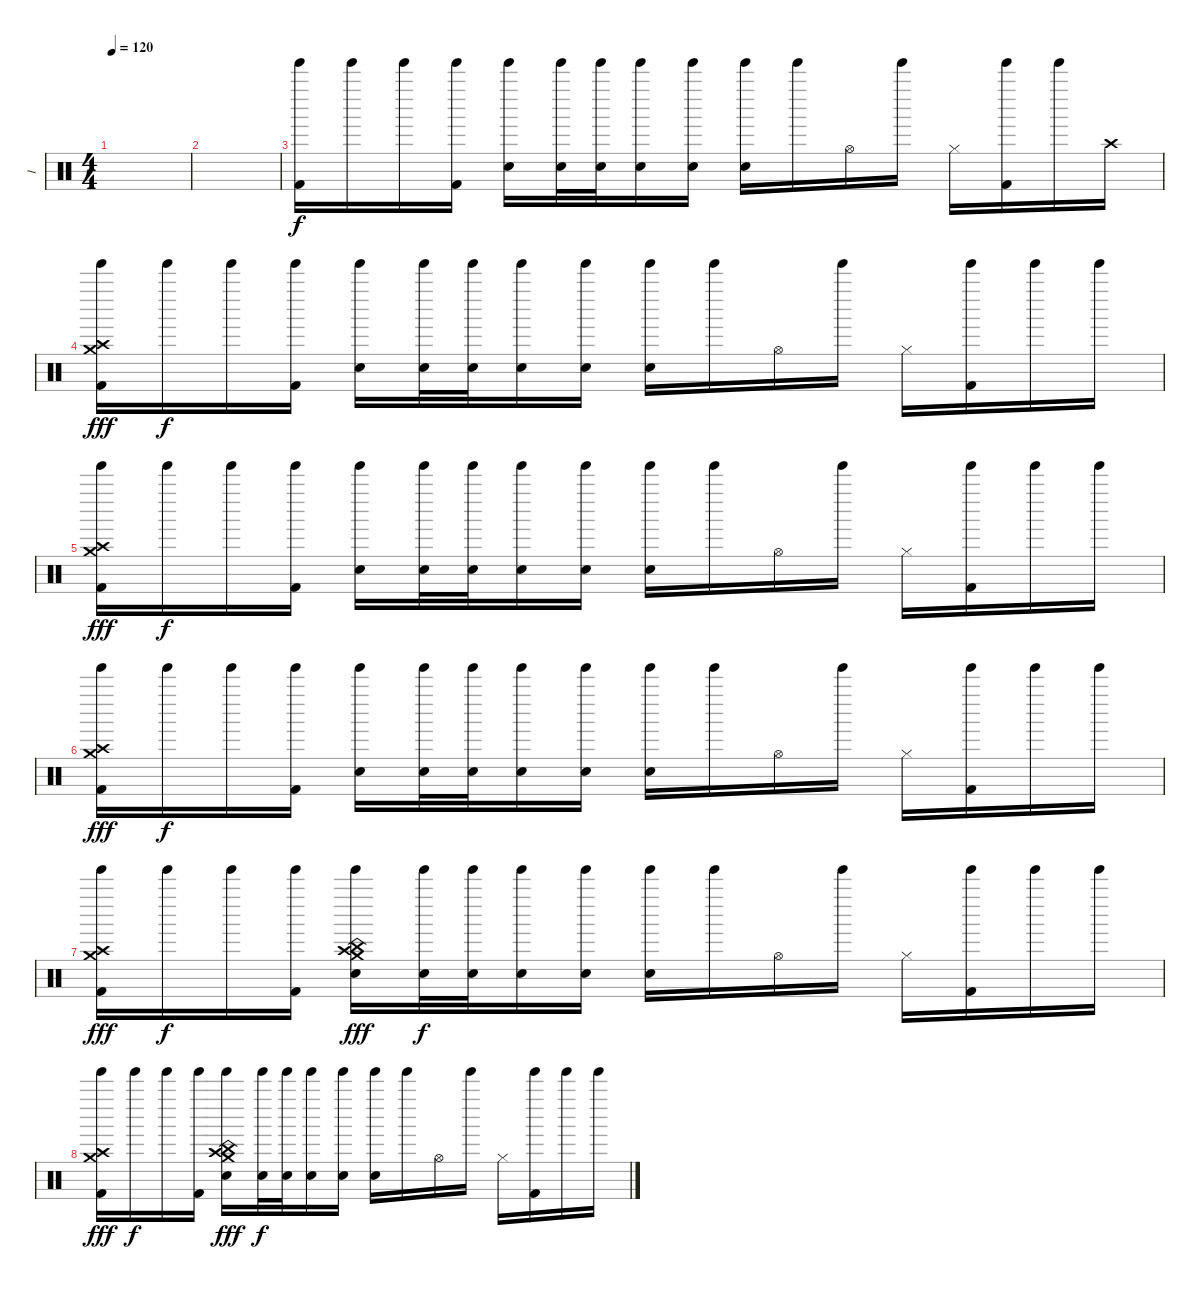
\track ("I" "I") {instrument percussion}
\staff {score}
\articulation defaults
\ts (4 4)
\tempo 120
\clef neutral
\ks c
|
|
("Tinkle Bell (hit)" "Kick (hit) 2").16{volume 7} "Tinkle Bell (hit)".16 "Tinkle Bell (hit)".16 ("Tinkle Bell (hit)" "Kick (hit) 2").16 ("Tinkle Bell (hit)" "Snare (hit) 2").16 ("Tinkle Bell (hit)" "Snare (hit) 2").32 ("Tinkle Bell (hit)" "Snare (hit) 2").32 ("Tinkle Bell (hit)" "Snare (hit) 2").16 ("Tinkle Bell (hit)" "Snare (hit) 2").16 ("Tinkle Bell (hit)" "Snare (hit) 2").16 "Tinkle Bell (hit)".16 "Hi-Hat (open)".16 "Tinkle Bell (hit)".16 "Hi-Hat (closed)".16 ("Tinkle Bell (hit)" "Kick (hit) 2").16 "Tinkle Bell (hit)".16 "Crash high (hit)".16 |
("Crash high (hit)" "Crash medium (hit)" "Tinkle Bell (hit)" "Kick (hit) 2").16{dy fff} "Tinkle Bell (hit)".16{dy f} "Tinkle Bell (hit)".16 ("Tinkle Bell (hit)" "Kick (hit) 2").16 ("Tinkle Bell (hit)" "Snare (hit) 2").16 ("Tinkle Bell (hit)" "Snare (hit) 2").32 ("Tinkle Bell (hit)" "Snare (hit) 2").32 ("Tinkle Bell (hit)" "Snare (hit) 2").16 ("Tinkle Bell (hit)" "Snare (hit) 2").16 ("Tinkle Bell (hit)" "Snare (hit) 2").16 "Tinkle Bell (hit)".16 "Hi-Hat (open)".16 "Tinkle Bell (hit)".16 "Hi-Hat (closed)".16 ("Tinkle Bell (hit)" "Kick (hit) 2").16 "Tinkle Bell (hit)".16 "Tinkle Bell (hit)".16 |
("Crash high (hit)" "Crash medium (hit)" "Tinkle Bell (hit)" "Kick (hit) 2").16{dy fff} "Tinkle Bell (hit)".16{dy f} "Tinkle Bell (hit)".16 ("Tinkle Bell (hit)" "Kick (hit) 2").16 ("Tinkle Bell (hit)" "Snare (hit) 2").16 ("Tinkle Bell (hit)" "Snare (hit) 2").32 ("Tinkle Bell (hit)" "Snare (hit) 2").32 ("Tinkle Bell (hit)" "Snare (hit) 2").16 ("Tinkle Bell (hit)" "Snare (hit) 2").16 ("Tinkle Bell (hit)" "Snare (hit) 2").16 "Tinkle Bell (hit)".16 "Hi-Hat (open)".16 "Tinkle Bell (hit)".16 "Hi-Hat (closed)".16 ("Tinkle Bell (hit)" "Kick (hit) 2").16 "Tinkle Bell (hit)".16 "Tinkle Bell (hit)".16 |
("Crash high (hit)" "Crash medium (hit)" "Tinkle Bell (hit)" "Kick (hit) 2").16{dy fff} "Tinkle Bell (hit)".16{dy f} "Tinkle Bell (hit)".16 ("Tinkle Bell (hit)" "Kick (hit) 2").16 ("Tinkle Bell (hit)" "Snare (hit) 2").16 ("Tinkle Bell (hit)" "Snare (hit) 2").32 ("Tinkle Bell (hit)" "Snare (hit) 2").32 ("Tinkle Bell (hit)" "Snare (hit) 2").16 ("Tinkle Bell (hit)" "Snare (hit) 2").16 ("Tinkle Bell (hit)" "Snare (hit) 2").16 "Tinkle Bell (hit)".16 "Hi-Hat (open)".16 "Tinkle Bell (hit)".16 "Hi-Hat (closed)".16 ("Tinkle Bell (hit)" "Kick (hit) 2").16 "Tinkle Bell (hit)".16 "Tinkle Bell (hit)".16 |
("Crash high (hit)" "Crash medium (hit)" "Tinkle Bell (hit)" "Kick (hit) 2").16{dy fff} "Tinkle Bell (hit)".16{dy f} "Tinkle Bell (hit)".16 ("Tinkle Bell (hit)" "Kick (hit) 2").16 ("Crash high (hit)" "Crash medium (hit)" "Tinkle Bell (hit)" "Snare (hit) 2" "China (hit)").16{dy fff} ("Tinkle Bell (hit)" "Snare (hit) 2").32{dy f} ("Tinkle Bell (hit)" "Snare (hit) 2").32 ("Tinkle Bell (hit)" "Snare (hit) 2").16 ("Tinkle Bell (hit)" "Snare (hit) 2").16 ("Tinkle Bell (hit)" "Snare (hit) 2").16 "Tinkle Bell (hit)".16 "Hi-Hat (open)".16 "Tinkle Bell (hit)".16 "Hi-Hat (closed)".16 ("Tinkle Bell (hit)" "Kick (hit) 2").16 "Tinkle Bell (hit)".16 "Tinkle Bell (hit)".16 |
("Crash high (hit)" "Crash medium (hit)" "Tinkle Bell (hit)" "Kick (hit) 2").16{dy fff} "Tinkle Bell (hit)".16{dy f} "Tinkle Bell (hit)".16 ("Tinkle Bell (hit)" "Kick (hit) 2").16 ("Crash high (hit)" "Crash medium (hit)" "Tinkle Bell (hit)" "Snare (hit) 2" "China (hit)").16{dy fff} ("Tinkle Bell (hit)" "Snare (hit) 2").32{dy f} ("Tinkle Bell (hit)" "Snare (hit) 2").32 ("Tinkle Bell (hit)" "Snare (hit) 2").16 ("Tinkle Bell (hit)" "Snare (hit) 2").16 ("Tinkle Bell (hit)" "Snare (hit) 2").16 "Tinkle Bell (hit)".16 "Hi-Hat (open)".16 "Tinkle Bell (hit)".16 "Hi-Hat (closed)".16 ("Tinkle Bell (hit)" "Kick (hit) 2").16 "Tinkle Bell (hit)".16 "Tinkle Bell (hit)".16
